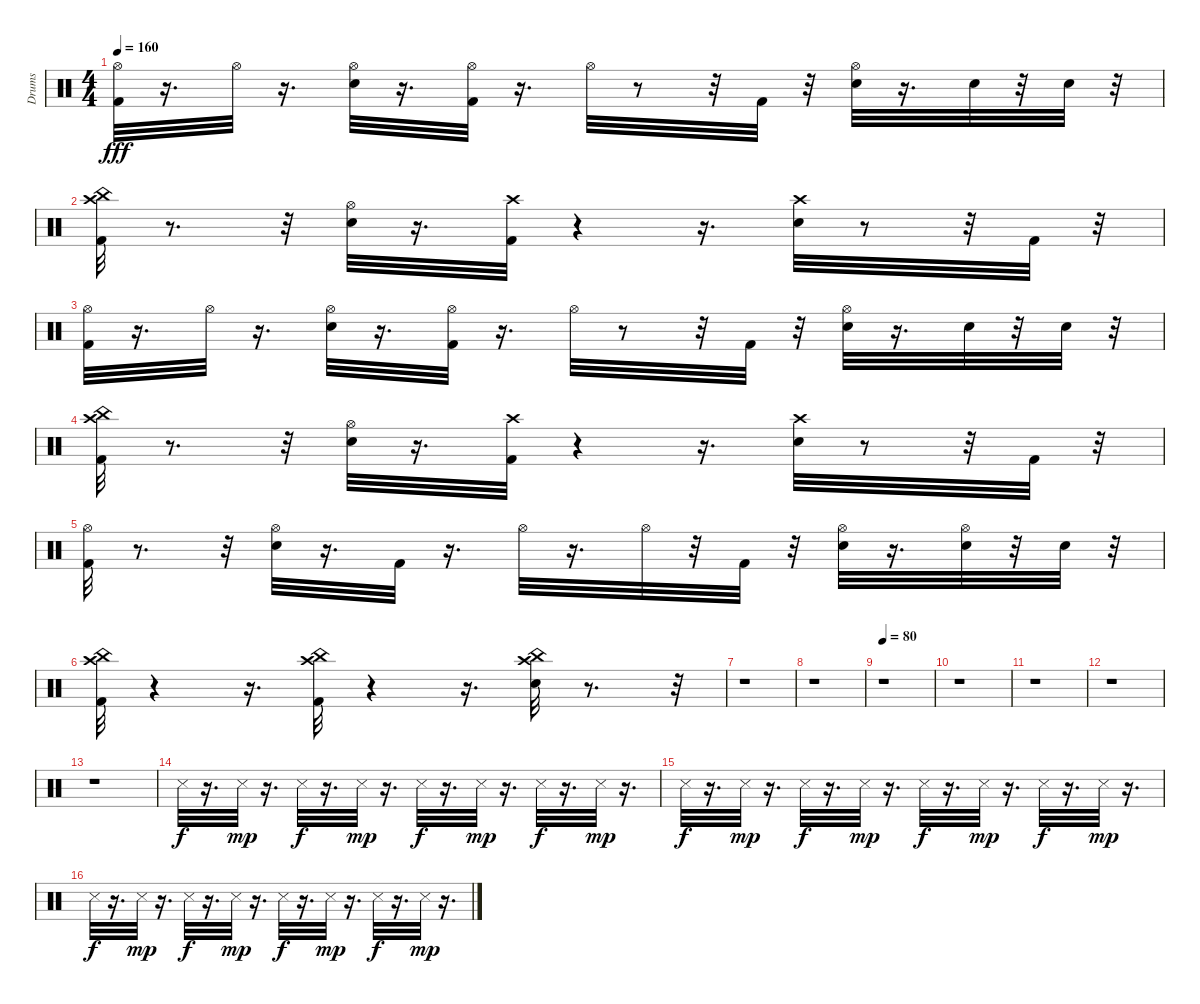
\track ("Drums" "Drums") {instrument percussion}
\staff {score}
\articulation defaults
\ts (4 4)
\tempo 160
\clef neutral
\ks c
("Hi-Hat (open)" "Kick (hit) 2").32{dy fff} r.16{d} "Hi-Hat (open)".32 r.16{d} ("Hi-Hat (open)" "Snare (hit) 2").32 r.16{d} ("Hi-Hat (open)" "Kick (hit) 2").32 r.16{d} "Hi-Hat (open)".32 r.8 r.32 "Kick (hit) 2".32 r.32 ("Hi-Hat (open)" "Snare (hit) 2").32 r.16{d} "Snare (hit) 2".32 r.32 "Snare (hit) 2".32 r.32 |
("Kick (hit) 2" "China (hit)" "Crash high (hit)").32 r.8{d} r.32 ("Hi-Hat (open)" "Snare (hit) 2").32 r.16{d} ("Crash high (hit)" "Kick (hit) 2").32 r.4 r.16{d} ("Crash high (hit)" "Snare (hit) 2").32 r.8 r.32 "Kick (hit) 2".32 r.32 |
("Hi-Hat (open)" "Kick (hit) 2").32 r.16{d} "Hi-Hat (open)".32 r.16{d} ("Hi-Hat (open)" "Snare (hit) 2").32 r.16{d} ("Hi-Hat (open)" "Kick (hit) 2").32 r.16{d} "Hi-Hat (open)".32 r.8 r.32 "Kick (hit) 2".32 r.32 ("Hi-Hat (open)" "Snare (hit) 2").32 r.16{d} "Snare (hit) 2".32 r.32 "Snare (hit) 2".32 r.32 |
("China (hit)" "Crash high (hit)" "Kick (hit) 2").32 r.8{d} r.32 ("Hi-Hat (open)" "Snare (hit) 2").32 r.16{d} ("Crash high (hit)" "Kick (hit) 2").32 r.4 r.16{d} ("Crash high (hit)" "Snare (hit) 2").32 r.8 r.32 "Kick (hit) 2".32 r.32 |
("Hi-Hat (open)" "Kick (hit) 2").32 r.8{d} r.32 ("Hi-Hat (open)" "Snare (hit) 2").32 r.16{d} "Kick (hit) 2".32 r.16{d} "Hi-Hat (open)".32 r.16{d} "Hi-Hat (open)".32 r.32 "Kick (hit) 2".32 r.32 ("Hi-Hat (open)" "Snare (hit) 2").32 r.16{d} ("Hi-Hat (open)" "Snare (hit) 2").32 r.32 "Snare (hit) 2".32 r.32 |
("China (hit)" "Crash high (hit)" "Kick (hit) 2").32 r.4 r.16{d} ("China (hit)" "Crash high (hit)" "Kick (hit) 2").32 r.4 r.16{d} ("China (hit)" "Crash high (hit)" "Snare (hit) 2").32 r.8{d} r.32 |
r.1 |
r.1 |
\tempo 80
r.1 |
r.1 |
r.1 |
r.1 |
r.1 |
"Snare (side stick) 3".32{dy f} r.16{d} "Snare (side stick) 3".32{dy mp} r.16{d} "Snare (side stick) 3".32{dy f} r.16{d} "Snare (side stick) 3".32{dy mp} r.16{d} "Snare (side stick) 3".32{dy f} r.16{d} "Snare (side stick) 3".32{dy mp} r.16{d} "Snare (side stick) 3".32{dy f} r.16{d} "Snare (side stick) 3".32{dy mp} r.16{d} |
"Snare (side stick) 3".32{dy f} r.16{d} "Snare (side stick) 3".32{dy mp} r.16{d} "Snare (side stick) 3".32{dy f} r.16{d} "Snare (side stick) 3".32{dy mp} r.16{d} "Snare (side stick) 3".32{dy f} r.16{d} "Snare (side stick) 3".32{dy mp} r.16{d} "Snare (side stick) 3".32{dy f} r.16{d} "Snare (side stick) 3".32{dy mp} r.16{d} |
"Snare (side stick) 3".32{dy f} r.16{d} "Snare (side stick) 3".32{dy mp} r.16{d} "Snare (side stick) 3".32{dy f} r.16{d} "Snare (side stick) 3".32{dy mp} r.16{d} "Snare (side stick) 3".32{dy f} r.16{d} "Snare (side stick) 3".32{dy mp} r.16{d} "Snare (side stick) 3".32{dy f} r.16{d} "Snare (side stick) 3".32{dy mp} r.16{d}
